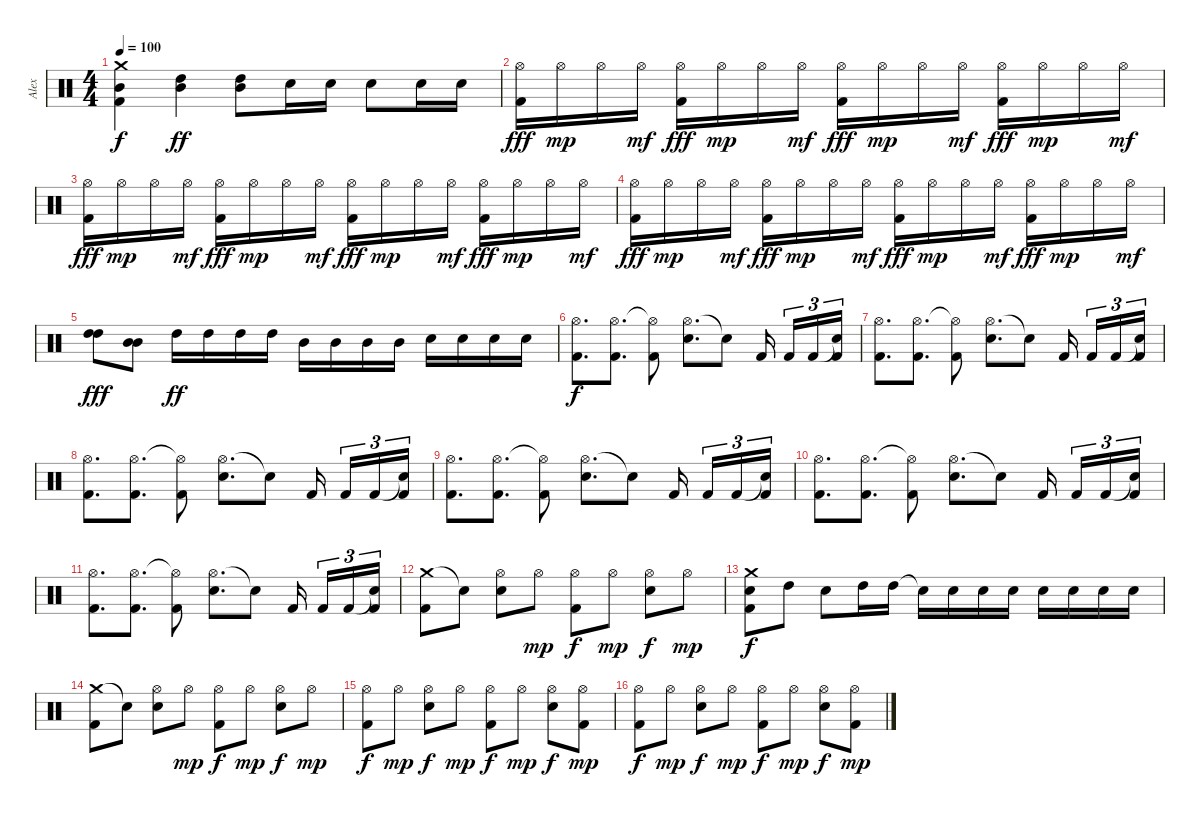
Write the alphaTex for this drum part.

\track ("Alex" "Alex") {instrument percussion}
\staff {score}
\articulation defaults
\ts (4 4)
\tempo 100
\clef neutral
\ks c
("Crash medium (hit)" "Mid Tom (hit)" "Kick (hit) 2").4{dy f} ("High Tom (hit)" "Mid Tom (hit)").4{dy ff} ("High Tom (hit)" "Mid Tom (hit)").8 "Electric Snare (hit)".16 "Electric Snare (hit)".16 "Electric Snare (hit)".8 "Electric Snare (hit)".16 "Electric Snare (hit)".16 |
("Hi-Hat (open)" "Kick (hit) 2").16{dy fff} "Hi-Hat (open)".16{dy mp} "Hi-Hat (open)".16 "Hi-Hat (open)".16{dy mf} ("Hi-Hat (open)" "Kick (hit) 2").16{dy fff} "Hi-Hat (open)".16{dy mp} "Hi-Hat (open)".16 "Hi-Hat (open)".16{dy mf} ("Hi-Hat (open)" "Kick (hit) 2").16{dy fff} "Hi-Hat (open)".16{dy mp} "Hi-Hat (open)".16 "Hi-Hat (open)".16{dy mf} ("Hi-Hat (open)" "Kick (hit) 2").16{dy fff} "Hi-Hat (open)".16{dy mp} "Hi-Hat (open)".16 "Hi-Hat (open)".16{dy mf} |
("Hi-Hat (open)" "Kick (hit) 2").16{dy fff} "Hi-Hat (open)".16{dy mp} "Hi-Hat (open)".16 "Hi-Hat (open)".16{dy mf} ("Hi-Hat (open)" "Kick (hit) 2").16{dy fff} "Hi-Hat (open)".16{dy mp} "Hi-Hat (open)".16 "Hi-Hat (open)".16{dy mf} ("Hi-Hat (open)" "Kick (hit) 2").16{dy fff} "Hi-Hat (open)".16{dy mp} "Hi-Hat (open)".16 "Hi-Hat (open)".16{dy mf} ("Hi-Hat (open)" "Kick (hit) 2").16{dy fff} "Hi-Hat (open)".16{dy mp} "Hi-Hat (open)".16 "Hi-Hat (open)".16{dy mf} |
("Hi-Hat (open)" "Kick (hit) 2").16{dy fff} "Hi-Hat (open)".16{dy mp} "Hi-Hat (open)".16 "Hi-Hat (open)".16{dy mf} ("Hi-Hat (open)" "Kick (hit) 2").16{dy fff} "Hi-Hat (open)".16{dy mp} "Hi-Hat (open)".16 "Hi-Hat (open)".16{dy mf} ("Hi-Hat (open)" "Kick (hit) 2").16{dy fff} "Hi-Hat (open)".16{dy mp} "Hi-Hat (open)".16 "Hi-Hat (open)".16{dy mf} ("Hi-Hat (open)" "Kick (hit) 2").16{dy fff} "Hi-Hat (open)".16{dy mp} "Hi-Hat (open)".16 "Hi-Hat (open)".16{dy mf} |
("High Tom (hit)" "High Tom (hit)").8{dy fff} ("Mid Tom (hit)" "Mid Tom (hit)").8 "High Tom (hit)".16{dy ff} "High Tom (hit)".16 "High Tom (hit)".16 "High Tom (hit)".16 "Mid Tom (hit)".16 "Mid Tom (hit)".16 "Mid Tom (hit)".16 "Mid Tom (hit)".16 "Electric Snare (hit)".16 "Electric Snare (hit)".16 "Electric Snare (hit)".16 "Electric Snare (hit)".16 |
("Hi-Hat (open)" "Kick (hit) 2").8{d dy f} ("Hi-Hat (open)" "Kick (hit) 2").8{d} ("Hi-Hat (open)"{t} "Kick (hit) 2").8 ("Hi-Hat (open)" "Electric Snare (hit)").8{d} "Snare (hit)"{t}.8 "Kick (hit) 2".16 "Kick (hit) 2".16{tu (3 2)} "Kick (hit) 2".16{tu (3 2)} ("Snare (hit)"{t} "Kick (hit) 2").16{tu (3 2)} |
("Hi-Hat (open)" "Kick (hit) 2").8{d} ("Hi-Hat (open)" "Kick (hit) 2").8{d} ("Hi-Hat (open)"{t} "Kick (hit) 2").8 ("Hi-Hat (open)" "Electric Snare (hit)").8{d} "Snare (hit)"{t}.8 "Kick (hit) 2".16 "Kick (hit) 2".16{tu (3 2)} "Kick (hit) 2".16{tu (3 2)} ("Snare (hit)"{t} "Kick (hit) 2").16{tu (3 2)} |
("Hi-Hat (open)" "Kick (hit) 2").8{d} ("Hi-Hat (open)" "Kick (hit) 2").8{d} ("Hi-Hat (open)"{t} "Kick (hit) 2").8 ("Hi-Hat (open)" "Electric Snare (hit)").8{d} "Snare (hit)"{t}.8 "Kick (hit) 2".16 "Kick (hit) 2".16{tu (3 2)} "Kick (hit) 2".16{tu (3 2)} ("Snare (hit)"{t} "Kick (hit) 2").16{tu (3 2)} |
("Hi-Hat (open)" "Kick (hit) 2").8{d} ("Hi-Hat (open)" "Kick (hit) 2").8{d} ("Hi-Hat (open)"{t} "Kick (hit) 2").8 ("Hi-Hat (open)" "Electric Snare (hit)").8{d} "Snare (hit)"{t}.8 "Kick (hit) 2".16 "Kick (hit) 2".16{tu (3 2)} "Kick (hit) 2".16{tu (3 2)} ("Snare (hit)"{t} "Kick (hit) 2").16{tu (3 2)} |
("Hi-Hat (open)" "Kick (hit) 2").8{d} ("Hi-Hat (open)" "Kick (hit) 2").8{d} ("Hi-Hat (open)"{t} "Kick (hit) 2").8 ("Hi-Hat (open)" "Electric Snare (hit)").8{d} "Snare (hit)"{t}.8 "Kick (hit) 2".16 "Kick (hit) 2".16{tu (3 2)} "Kick (hit) 2".16{tu (3 2)} ("Snare (hit)"{t} "Kick (hit) 2").16{tu (3 2)} |
("Hi-Hat (open)" "Kick (hit) 2").8{d} ("Hi-Hat (open)" "Kick (hit) 2").8{d} ("Hi-Hat (open)"{t} "Kick (hit) 2").8 ("Hi-Hat (open)" "Electric Snare (hit)").8{d} "Snare (hit)"{t}.8 "Kick (hit) 2".16 "Kick (hit) 2".16{tu (3 2)} "Kick (hit) 2".16{tu (3 2)} ("Snare (hit)"{t} "Kick (hit) 2").16{tu (3 2)} |
("Crash medium (hit)" "Kick (hit) 2").8 "Snare (hit)"{t}.8 ("Hi-Hat (open)" "Electric Snare (hit)").8 "Hi-Hat (open)".8{dy mp} ("Hi-Hat (open)" "Kick (hit) 2").8{dy f} "Hi-Hat (open)".8{dy mp} ("Hi-Hat (open)" "Electric Snare (hit)").8{dy f} "Hi-Hat (open)".8{dy mp} |
("Crash medium (hit)" "Electric Snare (hit)" "Kick (hit) 2").8{dy f} "High Tom (hit)".8 "Electric Snare (hit)".8 "High Tom (hit)".16 "High Tom (hit)".16 "Snare (hit)"{t}.16 "Electric Snare (hit)".16 "Electric Snare (hit)".16 "Electric Snare (hit)".16 "Electric Snare (hit)".16 "Electric Snare (hit)".16 "Electric Snare (hit)".16 "Electric Snare (hit)".16 |
("Crash medium (hit)" "Kick (hit) 2").8 "Snare (hit)"{t}.8 ("Hi-Hat (open)" "Electric Snare (hit)").8 "Hi-Hat (open)".8{dy mp} ("Hi-Hat (open)" "Kick (hit) 2").8{dy f} "Hi-Hat (open)".8{dy mp} ("Hi-Hat (open)" "Electric Snare (hit)").8{dy f} "Hi-Hat (open)".8{dy mp} |
("Hi-Hat (open)" "Kick (hit) 2").8{dy f} "Hi-Hat (open)".8{dy mp} ("Hi-Hat (open)" "Electric Snare (hit)").8{dy f} "Hi-Hat (open)".8{dy mp} ("Hi-Hat (open)" "Kick (hit) 2").8{dy f} "Hi-Hat (open)".8{dy mp} ("Hi-Hat (open)" "Electric Snare (hit)").8{dy f} ("Hi-Hat (open)" "Kick (hit) 2").8{dy mp} |
("Hi-Hat (open)" "Kick (hit) 2").8{dy f} "Hi-Hat (open)".8{dy mp} ("Hi-Hat (open)" "Electric Snare (hit)").8{dy f} "Hi-Hat (open)".8{dy mp} ("Hi-Hat (open)" "Kick (hit) 2").8{dy f} "Hi-Hat (open)".8{dy mp} ("Hi-Hat (open)" "Electric Snare (hit)").8{dy f} ("Hi-Hat (open)" "Kick (hit) 2").8{dy mp}
